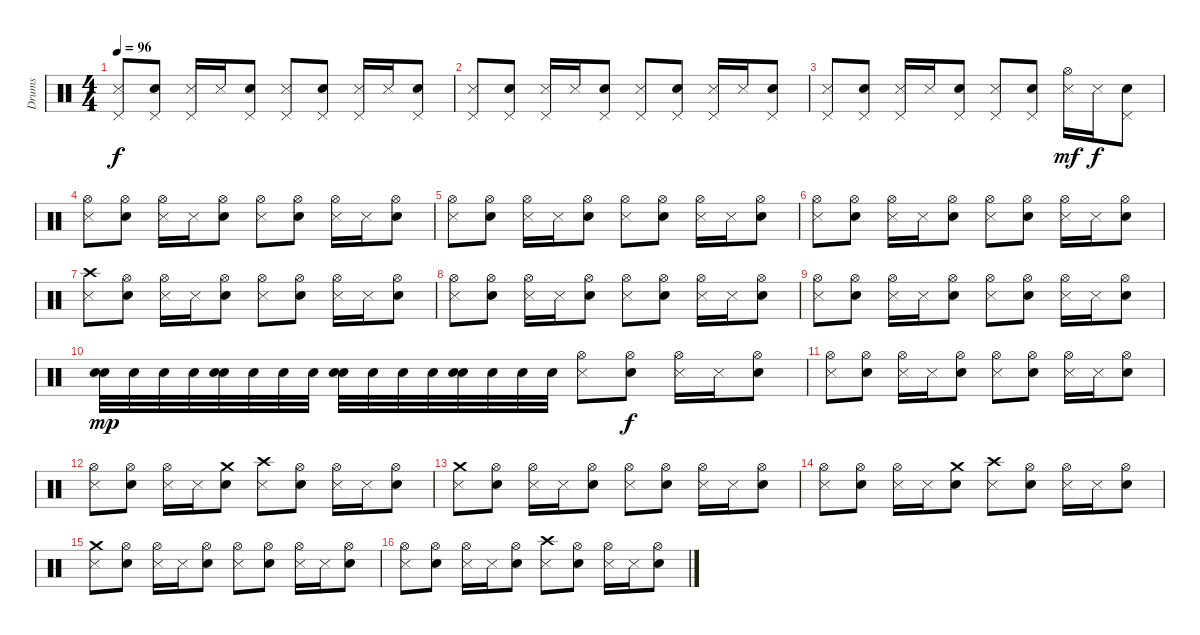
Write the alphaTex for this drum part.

\track ("Drums" "Drums") {instrument percussion}
\staff {score}
\articulation defaults
\ts (4 4)
\tempo 96
\clef neutral
\ks c
("Metronome (hit)" "Pedal Hi-Hat (hit)").8{dy f} ("Pedal Hi-Hat (hit)" "Electric Snare (hit)").8 ("Pedal Hi-Hat (hit)" "Metronome (hit)").16 "Metronome (hit)".16 ("Pedal Hi-Hat (hit)" "Electric Snare (hit)").8 ("Metronome (hit)" "Pedal Hi-Hat (hit)").8 ("Electric Snare (hit)" "Pedal Hi-Hat (hit)").8 ("Pedal Hi-Hat (hit)" "Metronome (hit)").16 "Metronome (hit)".16 ("Electric Snare (hit)" "Pedal Hi-Hat (hit)").8 |
("Metronome (hit)" "Pedal Hi-Hat (hit)").8 ("Electric Snare (hit)" "Pedal Hi-Hat (hit)").8 ("Pedal Hi-Hat (hit)" "Metronome (hit)").16 "Metronome (hit)".16 ("Pedal Hi-Hat (hit)" "Electric Snare (hit)").8 ("Pedal Hi-Hat (hit)" "Metronome (hit)").8 ("Electric Snare (hit)" "Pedal Hi-Hat (hit)").8 ("Pedal Hi-Hat (hit)" "Metronome (hit)").16 "Metronome (hit)".16 ("Electric Snare (hit)" "Pedal Hi-Hat (hit)").8 |
("Metronome (hit)" "Pedal Hi-Hat (hit)").8 ("Electric Snare (hit)" "Pedal Hi-Hat (hit)").8 ("Pedal Hi-Hat (hit)" "Metronome (hit)").16 "Metronome (hit)".16 ("Pedal Hi-Hat (hit)" "Electric Snare (hit)").8 ("Metronome (hit)" "Pedal Hi-Hat (hit)").8 ("Pedal Hi-Hat (hit)" "Electric Snare (hit)").8 ("Metronome (hit)" "Hi-Hat (open)").16{dy mf} "Metronome (hit)".16{dy f} ("Pedal Hi-Hat (hit)" "Electric Snare (hit)").8 |
("Hi-Hat (open)" "Metronome (hit)").8 ("Electric Snare (hit)" "Hi-Hat (open)").8 ("Metronome (hit)" "Hi-Hat (open)").16 "Metronome (hit)".16 ("Hi-Hat (open)" "Electric Snare (hit)").8 ("Hi-Hat (open)" "Metronome (hit)").8 ("Hi-Hat (open)" "Electric Snare (hit)").8 ("Hi-Hat (open)" "Metronome (hit)").16 "Metronome (hit)".16 ("Electric Snare (hit)" "Hi-Hat (open)").8 |
("Metronome (hit)" "Hi-Hat (open)").8 ("Hi-Hat (open)" "Electric Snare (hit)").8 ("Hi-Hat (open)" "Metronome (hit)").16 "Metronome (hit)".16 ("Electric Snare (hit)" "Hi-Hat (open)").8 ("Hi-Hat (open)" "Metronome (hit)").8 ("Electric Snare (hit)" "Hi-Hat (open)").8 ("Hi-Hat (open)" "Metronome (hit)").16 "Metronome (hit)".16 ("Hi-Hat (open)" "Electric Snare (hit)").8 |
("Hi-Hat (open)" "Metronome (hit)").8 ("Hi-Hat (open)" "Electric Snare (hit)").8 ("Hi-Hat (open)" "Metronome (hit)").16 "Metronome (hit)".16 ("Hi-Hat (open)" "Electric Snare (hit)").8 ("Hi-Hat (open)" "Metronome (hit)").8 ("Electric Snare (hit)" "Hi-Hat (open)").8 ("Metronome (hit)" "Hi-Hat (open)").16 "Metronome (hit)".16 ("Hi-Hat (open)" "Electric Snare (hit)").8 |
("Crash high (hit)" "Metronome (hit)").8 ("Hi-Hat (open)" "Electric Snare (hit)").8 ("Hi-Hat (open)" "Metronome (hit)").16 "Metronome (hit)".16 ("Hi-Hat (open)" "Electric Snare (hit)").8 ("Hi-Hat (open)" "Metronome (hit)").8 ("Electric Snare (hit)" "Hi-Hat (open)").8 ("Metronome (hit)" "Hi-Hat (open)").16 "Metronome (hit)".16 ("Hi-Hat (open)" "Electric Snare (hit)").8 |
("Hi-Hat (open)" "Metronome (hit)").8 ("Hi-Hat (open)" "Electric Snare (hit)").8 ("Metronome (hit)" "Hi-Hat (open)").16 "Metronome (hit)".16 ("Hi-Hat (open)" "Electric Snare (hit)").8 ("Metronome (hit)" "Hi-Hat (open)").8 ("Hi-Hat (open)" "Electric Snare (hit)").8 ("Metronome (hit)" "Hi-Hat (open)").16 "Metronome (hit)".16 ("Electric Snare (hit)" "Hi-Hat (open)").8 |
("Metronome (hit)" "Hi-Hat (open)").8 ("Hi-Hat (open)" "Electric Snare (hit)").8 ("Hi-Hat (open)" "Metronome (hit)").16 "Metronome (hit)".16 ("Electric Snare (hit)" "Hi-Hat (open)").8 ("Hi-Hat (open)" "Metronome (hit)").8 ("Hi-Hat (open)" "Electric Snare (hit)").8 ("Hi-Hat (open)" "Metronome (hit)").16 "Metronome (hit)".16 ("Hi-Hat (open)" "Electric Snare (hit)").8 |
("Electric Snare (hit)" "Electric Snare (hit)").32{dy mp} "Electric Snare (hit)".32 "Electric Snare (hit)".32 "Electric Snare (hit)".32 ("Electric Snare (hit)" "Electric Snare (hit)").32 "Electric Snare (hit)".32 "Electric Snare (hit)".32 "Electric Snare (hit)".32 ("Electric Snare (hit)" "Electric Snare (hit)").32 "Electric Snare (hit)".32 "Electric Snare (hit)".32 "Electric Snare (hit)".32 ("Electric Snare (hit)" "Electric Snare (hit)").32 "Electric Snare (hit)".32 "Electric Snare (hit)".32 "Electric Snare (hit)".32 ("Metronome (hit)" "Hi-Hat (open)").8 ("Hi-Hat (open)" "Electric Snare (hit)").8{dy f} ("Hi-Hat (open)" "Metronome (hit)").16 "Metronome (hit)".16 ("Electric Snare (hit)" "Hi-Hat (open)").8 |
("Hi-Hat (open)" "Metronome (hit)").8 ("Hi-Hat (open)" "Electric Snare (hit)").8 ("Hi-Hat (open)" "Metronome (hit)").16 "Metronome (hit)".16 ("Electric Snare (hit)" "Hi-Hat (open)").8 ("Hi-Hat (open)" "Metronome (hit)").8 ("Electric Snare (hit)" "Hi-Hat (open)").8 ("Metronome (hit)" "Hi-Hat (open)").16 "Metronome (hit)".16 ("Electric Snare (hit)" "Hi-Hat (open)").8 |
("Metronome (hit)" "Hi-Hat (open)").8 ("Electric Snare (hit)" "Hi-Hat (open)").8 ("Metronome (hit)" "Hi-Hat (open)").16 "Metronome (hit)".16 ("Crash medium (hit)" "Electric Snare (hit)").8 ("Metronome (hit)" "Crash high (hit)").8 ("Hi-Hat (open)" "Electric Snare (hit)").8 ("Hi-Hat (open)" "Metronome (hit)").16 "Metronome (hit)".16 ("Electric Snare (hit)" "Hi-Hat (open)").8 |
("Metronome (hit)" "Crash medium (hit)").8 ("Electric Snare (hit)" "Hi-Hat (open)").8 ("Metronome (hit)" "Hi-Hat (open)").16 "Metronome (hit)".16 ("Hi-Hat (open)" "Electric Snare (hit)").8 ("Hi-Hat (open)" "Metronome (hit)").8 ("Hi-Hat (open)" "Electric Snare (hit)").8 ("Metronome (hit)" "Hi-Hat (open)").16 "Metronome (hit)".16 ("Electric Snare (hit)" "Hi-Hat (open)").8 |
("Hi-Hat (open)" "Metronome (hit)").8 ("Electric Snare (hit)" "Hi-Hat (open)").8 ("Hi-Hat (open)" "Metronome (hit)").16 "Metronome (hit)".16 ("Crash medium (hit)" "Electric Snare (hit)").8 ("Metronome (hit)" "Crash high (hit)").8 ("Electric Snare (hit)" "Hi-Hat (open)").8 ("Hi-Hat (open)" "Metronome (hit)").16 "Metronome (hit)".16 ("Hi-Hat (open)" "Electric Snare (hit)").8 |
("Metronome (hit)" "Crash medium (hit)").8 ("Hi-Hat (open)" "Electric Snare (hit)").8 ("Metronome (hit)" "Hi-Hat (open)").16 "Metronome (hit)".16 ("Hi-Hat (open)" "Electric Snare (hit)").8 ("Metronome (hit)" "Hi-Hat (open)").8 ("Electric Snare (hit)" "Hi-Hat (open)").8 ("Metronome (hit)" "Hi-Hat (open)").16 "Metronome (hit)".16 ("Electric Snare (hit)" "Hi-Hat (open)").8 |
("Hi-Hat (open)" "Metronome (hit)").8 ("Hi-Hat (open)" "Electric Snare (hit)").8 ("Metronome (hit)" "Hi-Hat (open)").16 "Metronome (hit)".16 ("Electric Snare (hit)" "Hi-Hat (open)").8 ("Metronome (hit)" "Crash high (hit)").8 ("Hi-Hat (open)" "Electric Snare (hit)").8 ("Hi-Hat (open)" "Metronome (hit)").16 "Metronome (hit)".16 ("Electric Snare (hit)" "Hi-Hat (open)").8
